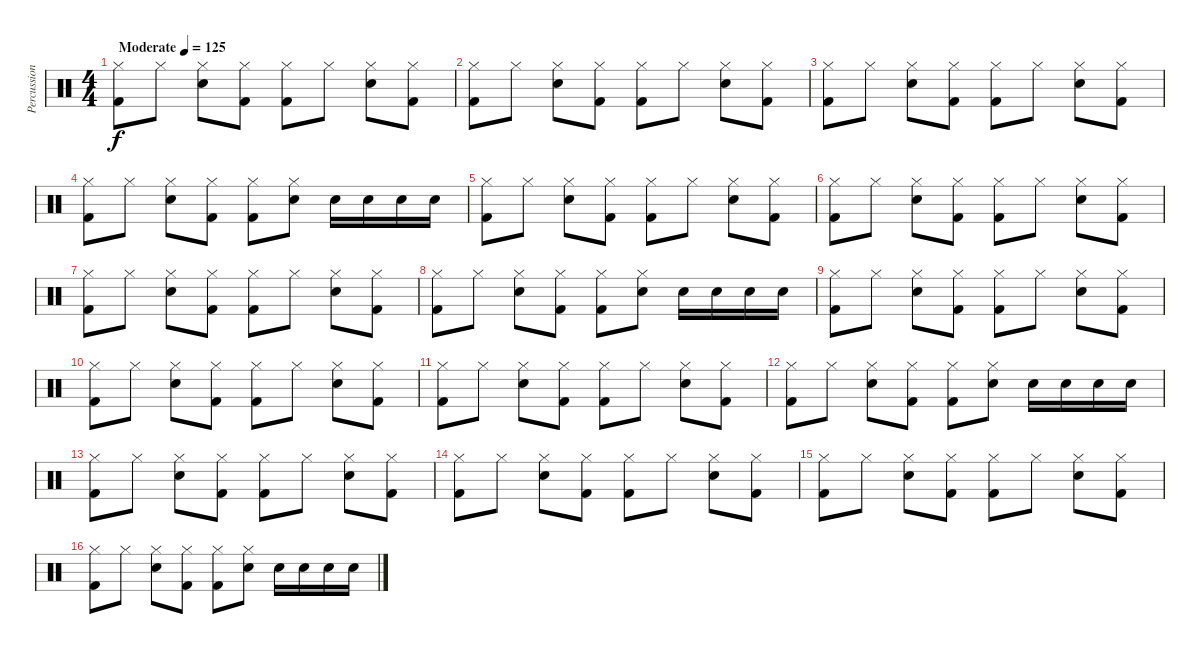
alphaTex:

\track ("Percussion" "Percussion") {instrument percussion}
\staff {score}
\articulation defaults
\ts (4 4)
\tempo (125 "Moderate")
\clef neutral
\ks c
("Kick (hit) 2" "Hi-Hat (closed)").8{dy f} "Hi-Hat (closed)".8 ("Snare (hit) 2" "Hi-Hat (closed)").8 ("Kick (hit) 2" "Hi-Hat (closed)").8 ("Kick (hit) 2" "Hi-Hat (closed)").8 "Hi-Hat (closed)".8 ("Snare (hit) 2" "Hi-Hat (closed)").8 ("Kick (hit) 2" "Hi-Hat (closed)").8 |
("Kick (hit) 2" "Hi-Hat (closed)").8 "Hi-Hat (closed)".8 ("Snare (hit) 2" "Hi-Hat (closed)").8 ("Kick (hit) 2" "Hi-Hat (closed)").8 ("Kick (hit) 2" "Hi-Hat (closed)").8 "Hi-Hat (closed)".8 ("Snare (hit) 2" "Hi-Hat (closed)").8 ("Kick (hit) 2" "Hi-Hat (closed)").8 |
("Kick (hit) 2" "Hi-Hat (closed)").8 "Hi-Hat (closed)".8 ("Snare (hit) 2" "Hi-Hat (closed)").8 ("Kick (hit) 2" "Hi-Hat (closed)").8 ("Kick (hit) 2" "Hi-Hat (closed)").8 "Hi-Hat (closed)".8 ("Snare (hit) 2" "Hi-Hat (closed)").8 ("Kick (hit) 2" "Hi-Hat (closed)").8 |
("Kick (hit) 2" "Hi-Hat (closed)").8 "Hi-Hat (closed)".8 ("Snare (hit) 2" "Hi-Hat (closed)").8 ("Kick (hit) 2" "Hi-Hat (closed)").8 ("Kick (hit) 2" "Hi-Hat (closed)").8 ("Snare (hit) 2" "Hi-Hat (closed)").8 "Snare (hit) 2".16 "Snare (hit) 2".16 "Snare (hit) 2".16 "Snare (hit) 2".16 |
("Kick (hit) 2" "Hi-Hat (closed)").8 "Hi-Hat (closed)".8 ("Snare (hit) 2" "Hi-Hat (closed)").8 ("Kick (hit) 2" "Hi-Hat (closed)").8 ("Kick (hit) 2" "Hi-Hat (closed)").8 "Hi-Hat (closed)".8 ("Snare (hit) 2" "Hi-Hat (closed)").8 ("Kick (hit) 2" "Hi-Hat (closed)").8 |
("Kick (hit) 2" "Hi-Hat (closed)").8 "Hi-Hat (closed)".8 ("Snare (hit) 2" "Hi-Hat (closed)").8 ("Kick (hit) 2" "Hi-Hat (closed)").8 ("Kick (hit) 2" "Hi-Hat (closed)").8 "Hi-Hat (closed)".8 ("Snare (hit) 2" "Hi-Hat (closed)").8 ("Kick (hit) 2" "Hi-Hat (closed)").8 |
("Kick (hit) 2" "Hi-Hat (closed)").8 "Hi-Hat (closed)".8 ("Snare (hit) 2" "Hi-Hat (closed)").8 ("Kick (hit) 2" "Hi-Hat (closed)").8 ("Kick (hit) 2" "Hi-Hat (closed)").8 "Hi-Hat (closed)".8 ("Snare (hit) 2" "Hi-Hat (closed)").8 ("Kick (hit) 2" "Hi-Hat (closed)").8 |
("Kick (hit) 2" "Hi-Hat (closed)").8 "Hi-Hat (closed)".8 ("Snare (hit) 2" "Hi-Hat (closed)").8 ("Kick (hit) 2" "Hi-Hat (closed)").8 ("Kick (hit) 2" "Hi-Hat (closed)").8 ("Snare (hit) 2" "Hi-Hat (closed)").8 "Snare (hit) 2".16 "Snare (hit) 2".16 "Snare (hit) 2".16 "Snare (hit) 2".16 |
("Kick (hit) 2" "Hi-Hat (closed)").8 "Hi-Hat (closed)".8 ("Snare (hit) 2" "Hi-Hat (closed)").8 ("Kick (hit) 2" "Hi-Hat (closed)").8 ("Kick (hit) 2" "Hi-Hat (closed)").8 "Hi-Hat (closed)".8 ("Snare (hit) 2" "Hi-Hat (closed)").8 ("Kick (hit) 2" "Hi-Hat (closed)").8 |
("Kick (hit) 2" "Hi-Hat (closed)").8 "Hi-Hat (closed)".8 ("Snare (hit) 2" "Hi-Hat (closed)").8 ("Kick (hit) 2" "Hi-Hat (closed)").8 ("Kick (hit) 2" "Hi-Hat (closed)").8 "Hi-Hat (closed)".8 ("Snare (hit) 2" "Hi-Hat (closed)").8 ("Kick (hit) 2" "Hi-Hat (closed)").8 |
("Kick (hit) 2" "Hi-Hat (closed)").8 "Hi-Hat (closed)".8 ("Snare (hit) 2" "Hi-Hat (closed)").8 ("Kick (hit) 2" "Hi-Hat (closed)").8 ("Kick (hit) 2" "Hi-Hat (closed)").8 "Hi-Hat (closed)".8 ("Snare (hit) 2" "Hi-Hat (closed)").8 ("Kick (hit) 2" "Hi-Hat (closed)").8 |
("Kick (hit) 2" "Hi-Hat (closed)").8 "Hi-Hat (closed)".8 ("Snare (hit) 2" "Hi-Hat (closed)").8 ("Kick (hit) 2" "Hi-Hat (closed)").8 ("Kick (hit) 2" "Hi-Hat (closed)").8 ("Snare (hit) 2" "Hi-Hat (closed)").8 "Snare (hit) 2".16 "Snare (hit) 2".16 "Snare (hit) 2".16 "Snare (hit) 2".16 |
("Kick (hit) 2" "Hi-Hat (closed)").8 "Hi-Hat (closed)".8 ("Snare (hit) 2" "Hi-Hat (closed)").8 ("Kick (hit) 2" "Hi-Hat (closed)").8 ("Kick (hit) 2" "Hi-Hat (closed)").8 "Hi-Hat (closed)".8 ("Snare (hit) 2" "Hi-Hat (closed)").8 ("Kick (hit) 2" "Hi-Hat (closed)").8 |
("Kick (hit) 2" "Hi-Hat (closed)").8 "Hi-Hat (closed)".8 ("Snare (hit) 2" "Hi-Hat (closed)").8 ("Kick (hit) 2" "Hi-Hat (closed)").8 ("Kick (hit) 2" "Hi-Hat (closed)").8 "Hi-Hat (closed)".8 ("Snare (hit) 2" "Hi-Hat (closed)").8 ("Kick (hit) 2" "Hi-Hat (closed)").8 |
("Kick (hit) 2" "Hi-Hat (closed)").8 "Hi-Hat (closed)".8 ("Snare (hit) 2" "Hi-Hat (closed)").8 ("Kick (hit) 2" "Hi-Hat (closed)").8 ("Kick (hit) 2" "Hi-Hat (closed)").8 "Hi-Hat (closed)".8 ("Snare (hit) 2" "Hi-Hat (closed)").8 ("Kick (hit) 2" "Hi-Hat (closed)").8 |
("Kick (hit) 2" "Hi-Hat (closed)").8 "Hi-Hat (closed)".8 ("Snare (hit) 2" "Hi-Hat (closed)").8 ("Kick (hit) 2" "Hi-Hat (closed)").8 ("Kick (hit) 2" "Hi-Hat (closed)").8 ("Snare (hit) 2" "Hi-Hat (closed)").8 "Snare (hit) 2".16 "Snare (hit) 2".16 "Snare (hit) 2".16 "Snare (hit) 2".16
